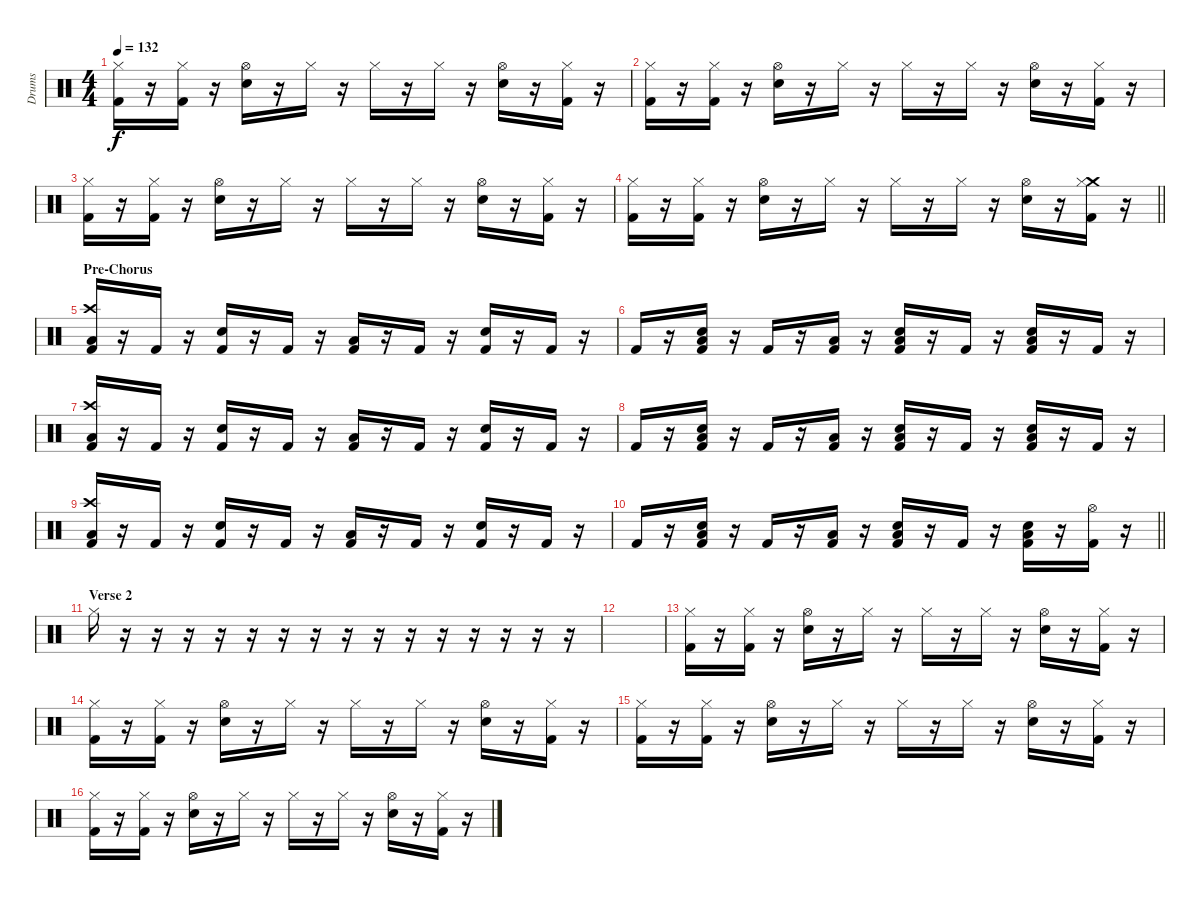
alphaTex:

\track ("Drums" "Drums") {instrument percussion}
\staff {score}
\articulation defaults
\ts (4 4)
\tempo 132
\clef neutral
\ks c
("Hi-Hat (closed)" "Kick (hit) 2").16{dy f} r.16 ("Hi-Hat (closed)" "Kick (hit) 2").16 r.16 ("Hi-Hat (open)" "Snare (hit) 2").16 r.16 "Hi-Hat (closed)".16 r.16 "Hi-Hat (closed)".16 r.16 "Hi-Hat (closed)".16 r.16 ("Hi-Hat (open)" "Snare (hit) 2").16 r.16 ("Hi-Hat (closed)" "Kick (hit) 2").16 r.16 |
("Hi-Hat (closed)" "Kick (hit) 2").16 r.16 ("Hi-Hat (closed)" "Kick (hit) 2").16 r.16 ("Hi-Hat (open)" "Snare (hit) 2").16 r.16 "Hi-Hat (closed)".16 r.16 "Hi-Hat (closed)".16 r.16 "Hi-Hat (closed)".16 r.16 ("Hi-Hat (open)" "Snare (hit) 2").16 r.16 ("Hi-Hat (closed)" "Kick (hit) 2").16 r.16 |
("Hi-Hat (closed)" "Kick (hit) 2").16 r.16 ("Hi-Hat (closed)" "Kick (hit) 2").16 r.16 ("Hi-Hat (open)" "Snare (hit) 2").16 r.16 "Hi-Hat (closed)".16 r.16 "Hi-Hat (closed)".16 r.16 "Hi-Hat (closed)".16 r.16 ("Hi-Hat (open)" "Snare (hit) 2").16 r.16 ("Hi-Hat (closed)" "Kick (hit) 2").16 r.16 |
\barLineRight lightlight
("Hi-Hat (closed)" "Kick (hit) 2").16 r.16 ("Hi-Hat (closed)" "Kick (hit) 2").16 r.16 ("Hi-Hat (open)" "Snare (hit) 2").16 r.16 "Hi-Hat (closed)".16 r.16 "Hi-Hat (closed)".16 r.16 "Hi-Hat (closed)".16 r.16 ("Hi-Hat (open)" "Snare (hit) 2").16 r.16 ("Crash medium (hit)" "Hi-Hat (closed)" "Kick (hit) 2").16 r.16 |
\section ("" "Pre-Chorus")
("Crash high (hit)" "Low Tom (hit)" "Kick (hit) 2").16 r.16 "Kick (hit) 2".16 r.16 ("Snare (hit) 2" "Kick (hit) 2").16 r.16 "Kick (hit) 2".16 r.16 ("Low Tom (hit)" "Kick (hit) 2").16 r.16 "Kick (hit) 2".16 r.16 ("Snare (hit) 2" "Kick (hit) 2").16 r.16 "Kick (hit) 2".16 r.16 |
"Kick (hit) 2".16 r.16 ("Low Tom (hit)" "Snare (hit) 2" "Kick (hit) 2").16 r.16 "Kick (hit) 2".16 r.16 ("Low Tom (hit)" "Kick (hit) 2").16 r.16 ("Low Tom (hit)" "Snare (hit) 2" "Kick (hit) 2").16 r.16 "Kick (hit) 2".16 r.16 ("Low Tom (hit)" "Snare (hit) 2" "Kick (hit) 2").16 r.16 "Kick (hit) 2".16 r.16 |
("Crash high (hit)" "Low Tom (hit)" "Kick (hit) 2").16 r.16 "Kick (hit) 2".16 r.16 ("Snare (hit) 2" "Kick (hit) 2").16 r.16 "Kick (hit) 2".16 r.16 ("Low Tom (hit)" "Kick (hit) 2").16 r.16 "Kick (hit) 2".16 r.16 ("Snare (hit) 2" "Kick (hit) 2").16 r.16 "Kick (hit) 2".16 r.16 |
"Kick (hit) 2".16 r.16 ("Low Tom (hit)" "Snare (hit) 2" "Kick (hit) 2").16 r.16 "Kick (hit) 2".16 r.16 ("Low Tom (hit)" "Kick (hit) 2").16 r.16 ("Low Tom (hit)" "Snare (hit) 2" "Kick (hit) 2").16 r.16 "Kick (hit) 2".16 r.16 ("Low Tom (hit)" "Snare (hit) 2" "Kick (hit) 2").16 r.16 "Kick (hit) 2".16 r.16 |
("Crash high (hit)" "Low Tom (hit)" "Kick (hit) 2").16 r.16 "Kick (hit) 2".16 r.16 ("Snare (hit) 2" "Kick (hit) 2").16 r.16 "Kick (hit) 2".16 r.16 ("Low Tom (hit)" "Kick (hit) 2").16 r.16 "Kick (hit) 2".16 r.16 ("Snare (hit) 2" "Kick (hit) 2").16 r.16 "Kick (hit) 2".16 r.16 |
\barLineRight lightlight "Kick (hit) 2".16
r.16 ("Low Tom (hit)" "Snare (hit) 2" "Kick (hit) 2").16 r.16 "Kick (hit) 2".16 r.16 ("Low Tom (hit)" "Kick (hit) 2").16 r.16 ("Low Tom (hit)" "Snare (hit) 2" "Kick (hit) 2").16 r.16 "Kick (hit) 2".16 r.16 ("Low Tom (hit)" "Snare (hit) 2" "Kick (hit) 2").16 r.16 ("Hi-Hat (open)" "Kick (hit) 2").16 r.16 |
\section ("" "Verse 2")
"Hi-Hat (closed)".16 r.16 r.16 r.16 r.16 r.16 r.16 r.16 r.16 r.16 r.16 r.16 r.16 r.16 r.16 r.16 |
|
("Hi-Hat (closed)" "Kick (hit) 2").16 r.16 ("Hi-Hat (closed)" "Kick (hit) 2").16 r.16 ("Hi-Hat (open)" "Snare (hit) 2").16 r.16 "Hi-Hat (closed)".16 r.16 "Hi-Hat (closed)".16 r.16 "Hi-Hat (closed)".16 r.16 ("Hi-Hat (open)" "Snare (hit) 2").16 r.16 ("Hi-Hat (closed)" "Kick (hit) 2").16 r.16 |
("Hi-Hat (closed)" "Kick (hit) 2").16 r.16 ("Hi-Hat (closed)" "Kick (hit) 2").16 r.16 ("Hi-Hat (open)" "Snare (hit) 2").16 r.16 "Hi-Hat (closed)".16 r.16 "Hi-Hat (closed)".16 r.16 "Hi-Hat (closed)".16 r.16 ("Hi-Hat (open)" "Snare (hit) 2").16 r.16 ("Hi-Hat (closed)" "Kick (hit) 2").16 r.16 |
("Hi-Hat (closed)" "Kick (hit) 2").16 r.16 ("Hi-Hat (closed)" "Kick (hit) 2").16 r.16 ("Hi-Hat (open)" "Snare (hit) 2").16 r.16 "Hi-Hat (closed)".16 r.16 "Hi-Hat (closed)".16 r.16 "Hi-Hat (closed)".16 r.16 ("Hi-Hat (open)" "Snare (hit) 2").16 r.16 ("Hi-Hat (closed)" "Kick (hit) 2").16 r.16 |
("Hi-Hat (closed)" "Kick (hit) 2").16 r.16 ("Hi-Hat (closed)" "Kick (hit) 2").16 r.16 ("Hi-Hat (open)" "Snare (hit) 2").16 r.16 "Hi-Hat (closed)".16 r.16 "Hi-Hat (closed)".16 r.16 "Hi-Hat (closed)".16 r.16 ("Hi-Hat (open)" "Snare (hit) 2").16 r.16 ("Hi-Hat (closed)" "Kick (hit) 2").16 r.16
